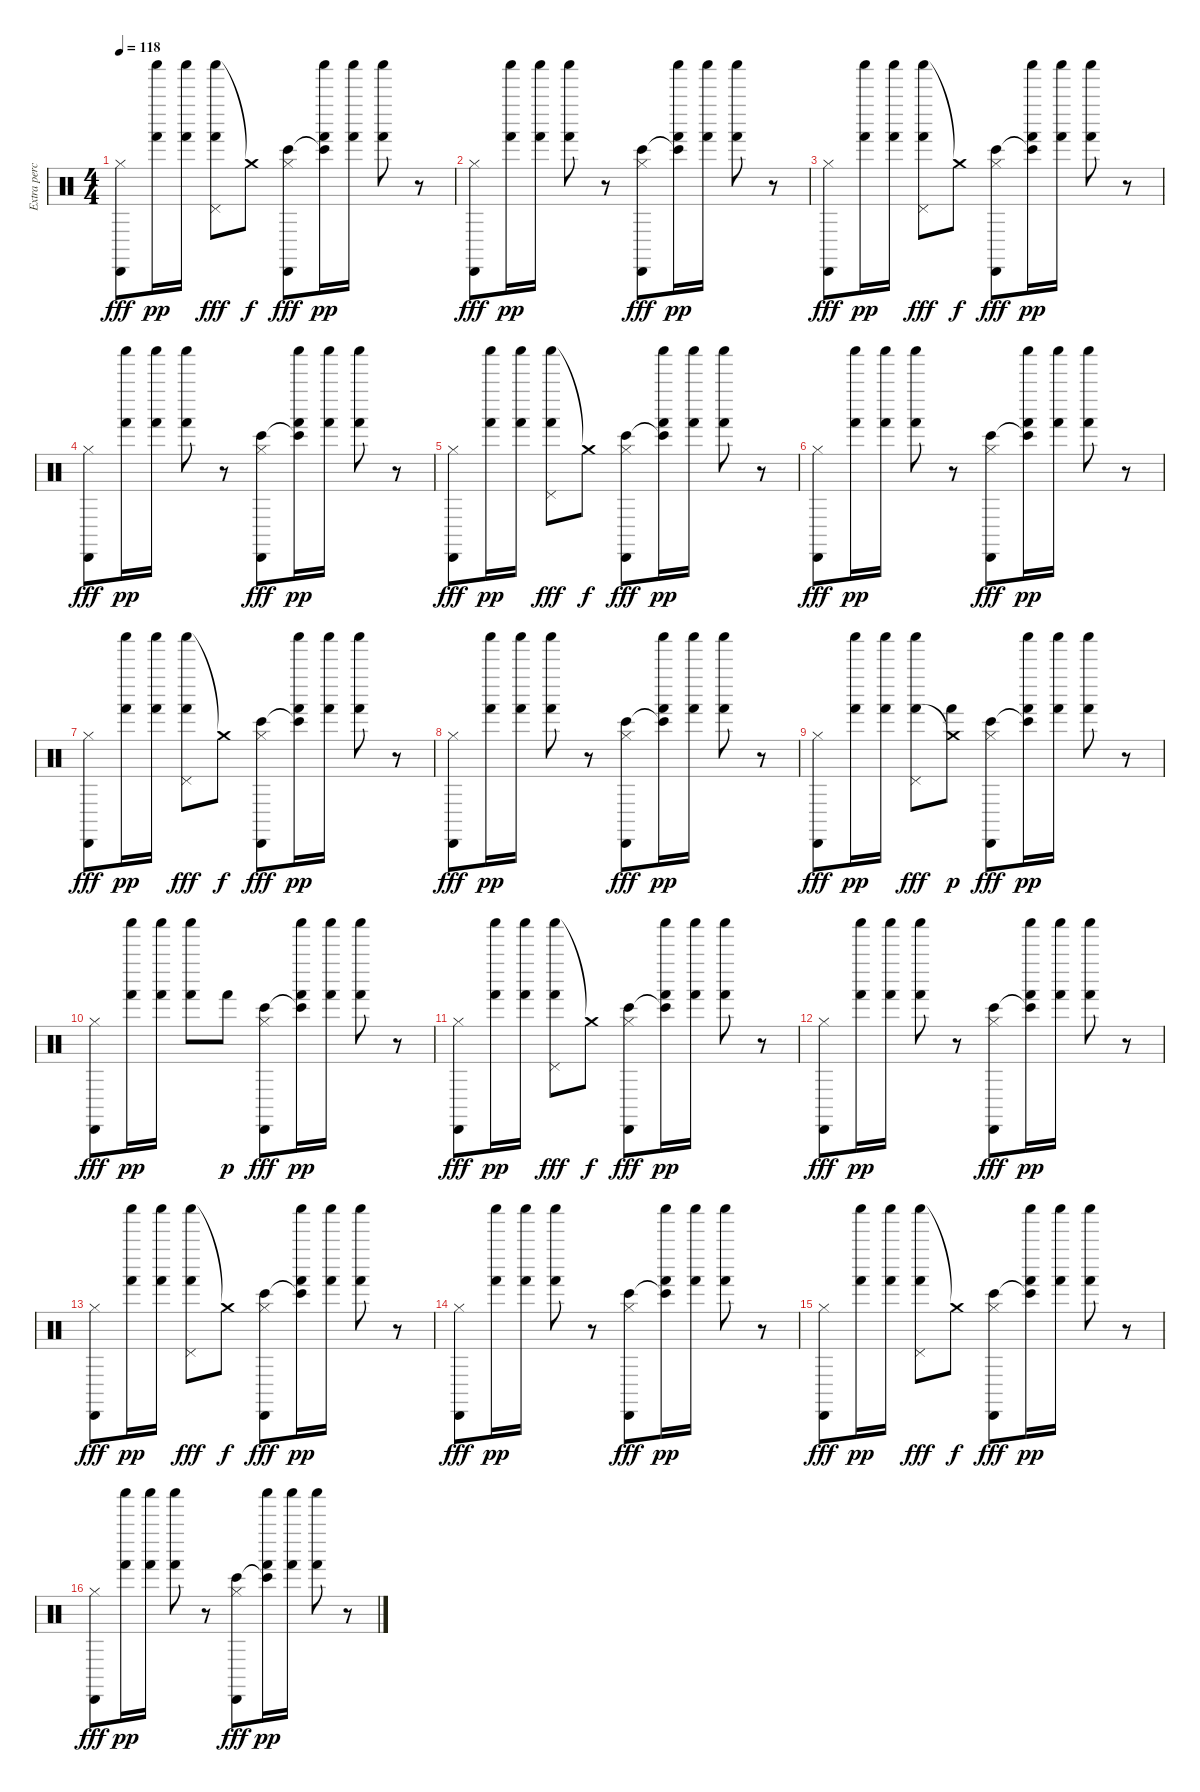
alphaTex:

\track ("Extra percussion" "Extra perc") {instrument percussion}
\staff {score}
\articulation defaults
\ts (4 4)
\tempo 118
\clef neutral
\ks c
("Cabasa (hit)" "Hi-Hat (closed)").8{dy fff} ("Shaker (hit)" "Hand (hit)").16{dy pp} ("Shaker (hit)" "Hand (hit)").16 ("Shaker (hit)" "Hand (hit)" "Pedal Hi-Hat (hit)").8{dy fff} "Crash medium (hit)"{t}.8{dy f} ("Cabasa (hit)" "Hi-Hat (closed)" "Bongo High (hit)").8{dy fff} ("Shaker (hit)" "Hand (hit)" "Bongo High (hit)"{t}).16{dy pp} ("Shaker (hit)" "Hand (hit)").16 ("Shaker (hit)" "Hand (hit)").8 r.8 |
("Cabasa (hit)" "Hi-Hat (closed)").8{dy fff} ("Shaker (hit)" "Hand (hit)").16{dy pp} ("Shaker (hit)" "Hand (hit)").16 ("Shaker (hit)" "Hand (hit)").8 r.8 ("Cabasa (hit)" "Hi-Hat (closed)" "Bongo High (hit)").8{dy fff} ("Shaker (hit)" "Hand (hit)" "Bongo High (hit)"{t}).16{dy pp} ("Shaker (hit)" "Hand (hit)").16 ("Shaker (hit)" "Hand (hit)").8 r.8 |
("Cabasa (hit)" "Hi-Hat (closed)").8{dy fff} ("Shaker (hit)" "Hand (hit)").16{dy pp} ("Shaker (hit)" "Hand (hit)").16 ("Shaker (hit)" "Hand (hit)" "Pedal Hi-Hat (hit)").8{dy fff} "Crash medium (hit)"{t}.8{dy f} ("Cabasa (hit)" "Hi-Hat (closed)" "Bongo High (hit)").8{dy fff} ("Shaker (hit)" "Hand (hit)" "Bongo High (hit)"{t}).16{dy pp} ("Shaker (hit)" "Hand (hit)").16 ("Shaker (hit)" "Hand (hit)").8 r.8 |
("Cabasa (hit)" "Hi-Hat (closed)").8{dy fff} ("Shaker (hit)" "Hand (hit)").16{dy pp} ("Shaker (hit)" "Hand (hit)").16 ("Shaker (hit)" "Hand (hit)").8 r.8 ("Cabasa (hit)" "Hi-Hat (closed)" "Bongo High (hit)").8{dy fff} ("Shaker (hit)" "Hand (hit)" "Bongo High (hit)"{t}).16{dy pp} ("Shaker (hit)" "Hand (hit)").16 ("Shaker (hit)" "Hand (hit)").8 r.8 |
("Cabasa (hit)" "Hi-Hat (closed)").8{dy fff} ("Shaker (hit)" "Hand (hit)").16{dy pp} ("Shaker (hit)" "Hand (hit)").16 ("Shaker (hit)" "Hand (hit)" "Pedal Hi-Hat (hit)").8{dy fff} "Crash medium (hit)"{t}.8{dy f} ("Cabasa (hit)" "Hi-Hat (closed)" "Bongo High (hit)").8{dy fff} ("Shaker (hit)" "Hand (hit)" "Bongo High (hit)"{t}).16{dy pp} ("Shaker (hit)" "Hand (hit)").16 ("Shaker (hit)" "Hand (hit)").8 r.8 |
("Cabasa (hit)" "Hi-Hat (closed)").8{dy fff} ("Shaker (hit)" "Hand (hit)").16{dy pp} ("Shaker (hit)" "Hand (hit)").16 ("Shaker (hit)" "Hand (hit)").8 r.8 ("Cabasa (hit)" "Hi-Hat (closed)" "Bongo High (hit)").8{dy fff} ("Shaker (hit)" "Hand (hit)" "Bongo High (hit)"{t}).16{dy pp} ("Shaker (hit)" "Hand (hit)").16 ("Shaker (hit)" "Hand (hit)").8 r.8 |
("Cabasa (hit)" "Hi-Hat (closed)").8{dy fff} ("Shaker (hit)" "Hand (hit)").16{dy pp} ("Shaker (hit)" "Hand (hit)").16 ("Shaker (hit)" "Hand (hit)" "Pedal Hi-Hat (hit)").8{dy fff} "Crash medium (hit)"{t}.8{dy f} ("Cabasa (hit)" "Hi-Hat (closed)" "Bongo High (hit)").8{dy fff} ("Shaker (hit)" "Hand (hit)" "Bongo High (hit)"{t}).16{dy pp} ("Shaker (hit)" "Hand (hit)").16 ("Shaker (hit)" "Hand (hit)").8 r.8 |
("Cabasa (hit)" "Hi-Hat (closed)").8{dy fff} ("Shaker (hit)" "Hand (hit)").16{dy pp} ("Shaker (hit)" "Hand (hit)").16 ("Shaker (hit)" "Hand (hit)").8 r.8 ("Cabasa (hit)" "Hi-Hat (closed)" "Bongo High (hit)").8{dy fff} ("Shaker (hit)" "Hand (hit)" "Bongo High (hit)"{t}).16{dy pp} ("Shaker (hit)" "Hand (hit)").16 ("Shaker (hit)" "Hand (hit)").8 r.8 |
("Cabasa (hit)" "Hi-Hat (closed)").8{dy fff} ("Shaker (hit)" "Hand (hit)").16{dy pp} ("Shaker (hit)" "Hand (hit)").16 ("Shaker (hit)" "Hand (hit)" "Pedal Hi-Hat (hit)").8{dy fff} ("Hand (hit)" "Crash medium (hit)"{t}).8{dy p} ("Cabasa (hit)" "Hi-Hat (closed)" "Bongo High (hit)").8{dy fff} ("Shaker (hit)" "Hand (hit)" "Bongo High (hit)"{t}).16{dy pp} ("Shaker (hit)" "Hand (hit)").16 ("Shaker (hit)" "Hand (hit)").8 r.8 |
("Cabasa (hit)" "Hi-Hat (closed)").8{dy fff} ("Shaker (hit)" "Hand (hit)").16{dy pp} ("Shaker (hit)" "Hand (hit)").16 ("Shaker (hit)" "Hand (hit)").8 "Hand (hit)".8{dy p} ("Cabasa (hit)" "Hi-Hat (closed)" "Bongo High (hit)").8{dy fff} ("Shaker (hit)" "Hand (hit)" "Bongo High (hit)"{t}).16{dy pp} ("Shaker (hit)" "Hand (hit)").16 ("Shaker (hit)" "Hand (hit)").8 r.8 |
("Cabasa (hit)" "Hi-Hat (closed)").8{dy fff} ("Shaker (hit)" "Hand (hit)").16{dy pp} ("Shaker (hit)" "Hand (hit)").16 ("Shaker (hit)" "Hand (hit)" "Pedal Hi-Hat (hit)").8{dy fff} "Crash medium (hit)"{t}.8{dy f} ("Cabasa (hit)" "Hi-Hat (closed)" "Bongo High (hit)").8{dy fff} ("Shaker (hit)" "Hand (hit)" "Bongo High (hit)"{t}).16{dy pp} ("Shaker (hit)" "Hand (hit)").16 ("Shaker (hit)" "Hand (hit)").8 r.8 |
("Cabasa (hit)" "Hi-Hat (closed)").8{dy fff} ("Shaker (hit)" "Hand (hit)").16{dy pp} ("Shaker (hit)" "Hand (hit)").16 ("Shaker (hit)" "Hand (hit)").8 r.8 ("Cabasa (hit)" "Hi-Hat (closed)" "Bongo High (hit)").8{dy fff} ("Shaker (hit)" "Hand (hit)" "Bongo High (hit)"{t}).16{dy pp} ("Shaker (hit)" "Hand (hit)").16 ("Shaker (hit)" "Hand (hit)").8 r.8 |
("Cabasa (hit)" "Hi-Hat (closed)").8{dy fff} ("Shaker (hit)" "Hand (hit)").16{dy pp} ("Shaker (hit)" "Hand (hit)").16 ("Shaker (hit)" "Hand (hit)" "Pedal Hi-Hat (hit)").8{dy fff} "Crash medium (hit)"{t}.8{dy f} ("Cabasa (hit)" "Hi-Hat (closed)" "Bongo High (hit)").8{dy fff} ("Shaker (hit)" "Hand (hit)" "Bongo High (hit)"{t}).16{dy pp} ("Shaker (hit)" "Hand (hit)").16 ("Shaker (hit)" "Hand (hit)").8 r.8 |
("Cabasa (hit)" "Hi-Hat (closed)").8{dy fff} ("Shaker (hit)" "Hand (hit)").16{dy pp} ("Shaker (hit)" "Hand (hit)").16 ("Shaker (hit)" "Hand (hit)").8 r.8 ("Cabasa (hit)" "Hi-Hat (closed)" "Bongo High (hit)").8{dy fff} ("Shaker (hit)" "Hand (hit)" "Bongo High (hit)"{t}).16{dy pp} ("Shaker (hit)" "Hand (hit)").16 ("Shaker (hit)" "Hand (hit)").8 r.8 |
("Cabasa (hit)" "Hi-Hat (closed)").8{dy fff} ("Shaker (hit)" "Hand (hit)").16{dy pp} ("Shaker (hit)" "Hand (hit)").16 ("Shaker (hit)" "Hand (hit)" "Pedal Hi-Hat (hit)").8{dy fff} "Crash medium (hit)"{t}.8{dy f} ("Cabasa (hit)" "Hi-Hat (closed)" "Bongo High (hit)").8{dy fff} ("Shaker (hit)" "Hand (hit)" "Bongo High (hit)"{t}).16{dy pp} ("Shaker (hit)" "Hand (hit)").16 ("Shaker (hit)" "Hand (hit)").8 r.8 |
("Cabasa (hit)" "Hi-Hat (closed)").8{dy fff} ("Shaker (hit)" "Hand (hit)").16{dy pp} ("Shaker (hit)" "Hand (hit)").16 ("Shaker (hit)" "Hand (hit)").8 r.8 ("Cabasa (hit)" "Hi-Hat (closed)" "Bongo High (hit)").8{dy fff} ("Shaker (hit)" "Hand (hit)" "Bongo High (hit)"{t}).16{dy pp} ("Shaker (hit)" "Hand (hit)").16 ("Shaker (hit)" "Hand (hit)").8 r.8
